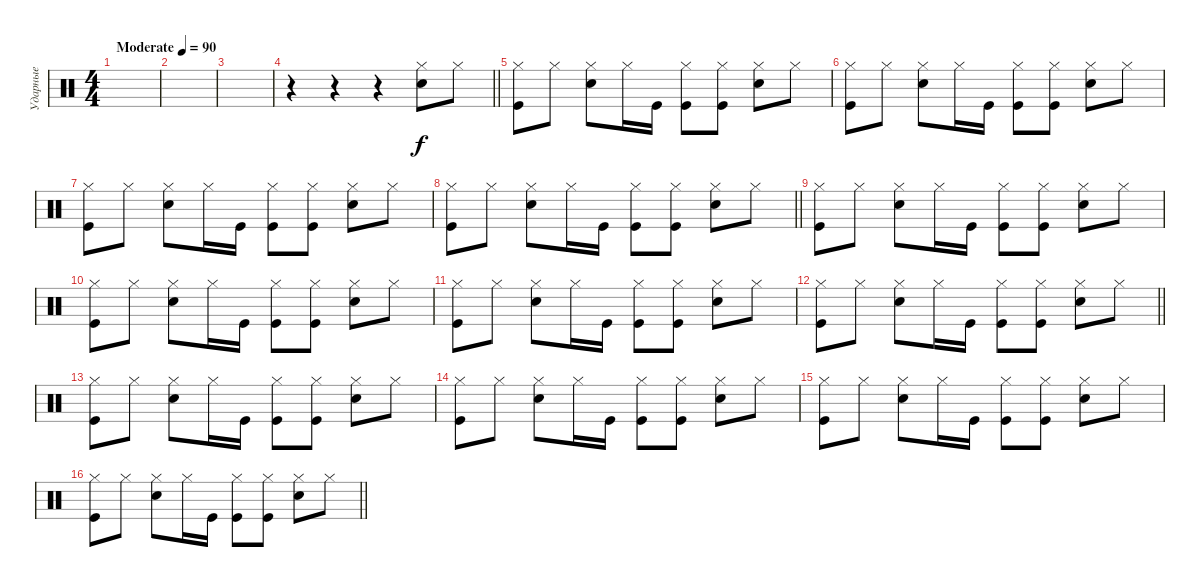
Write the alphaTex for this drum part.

\track ("Ударные" "Ударные") {instrument percussion}
\staff {score}
\articulation defaults
\ts (4 4)
\tempo (90 "Moderate")
\clef neutral
\ks c
|
|
|
\barLineRight lightlight
r.4 r.4 r.4 ("Hi-Hat (closed)" "Snare (hit) 2").8 "Hi-Hat (closed)".8 |
("Kick (hit)" "Hi-Hat (closed)").8 "Hi-Hat (closed)".8 ("Snare (hit) 2" "Hi-Hat (closed)").8 "Hi-Hat (closed)".16 "Kick (hit)".16 ("Hi-Hat (closed)" "Kick (hit)").8 ("Hi-Hat (closed)" "Kick (hit)").8 ("Hi-Hat (closed)" "Snare (hit) 2").8 "Hi-Hat (closed)".8 |
("Kick (hit)" "Hi-Hat (closed)").8 "Hi-Hat (closed)".8 ("Snare (hit) 2" "Hi-Hat (closed)").8 "Hi-Hat (closed)".16 "Kick (hit)".16 ("Hi-Hat (closed)" "Kick (hit)").8 ("Hi-Hat (closed)" "Kick (hit)").8 ("Hi-Hat (closed)" "Snare (hit) 2").8 "Hi-Hat (closed)".8 |
("Kick (hit)" "Hi-Hat (closed)").8 "Hi-Hat (closed)".8 ("Snare (hit) 2" "Hi-Hat (closed)").8 "Hi-Hat (closed)".16 "Kick (hit)".16 ("Hi-Hat (closed)" "Kick (hit)").8 ("Hi-Hat (closed)" "Kick (hit)").8 ("Hi-Hat (closed)" "Snare (hit) 2").8 "Hi-Hat (closed)".8 |
\barLineRight lightlight
("Kick (hit)" "Hi-Hat (closed)").8 "Hi-Hat (closed)".8 ("Snare (hit) 2" "Hi-Hat (closed)").8 "Hi-Hat (closed)".16 "Kick (hit)".16 ("Hi-Hat (closed)" "Kick (hit)").8 ("Hi-Hat (closed)" "Kick (hit)").8 ("Hi-Hat (closed)" "Snare (hit) 2").8 "Hi-Hat (closed)".8 |
("Kick (hit)" "Hi-Hat (closed)").8 "Hi-Hat (closed)".8 ("Snare (hit) 2" "Hi-Hat (closed)").8 "Hi-Hat (closed)".16 "Kick (hit)".16 ("Hi-Hat (closed)" "Kick (hit)").8 ("Hi-Hat (closed)" "Kick (hit)").8 ("Hi-Hat (closed)" "Snare (hit) 2").8 "Hi-Hat (closed)".8 |
("Kick (hit)" "Hi-Hat (closed)").8 "Hi-Hat (closed)".8 ("Snare (hit) 2" "Hi-Hat (closed)").8 "Hi-Hat (closed)".16 "Kick (hit)".16 ("Hi-Hat (closed)" "Kick (hit)").8 ("Hi-Hat (closed)" "Kick (hit)").8 ("Hi-Hat (closed)" "Snare (hit) 2").8 "Hi-Hat (closed)".8 |
("Kick (hit)" "Hi-Hat (closed)").8 "Hi-Hat (closed)".8 ("Snare (hit) 2" "Hi-Hat (closed)").8 "Hi-Hat (closed)".16 "Kick (hit)".16 ("Hi-Hat (closed)" "Kick (hit)").8 ("Hi-Hat (closed)" "Kick (hit)").8 ("Hi-Hat (closed)" "Snare (hit) 2").8 "Hi-Hat (closed)".8 |
\barLineRight lightlight
("Kick (hit)" "Hi-Hat (closed)").8 "Hi-Hat (closed)".8 ("Snare (hit) 2" "Hi-Hat (closed)").8 "Hi-Hat (closed)".16 "Kick (hit)".16 ("Hi-Hat (closed)" "Kick (hit)").8 ("Hi-Hat (closed)" "Kick (hit)").8 ("Hi-Hat (closed)" "Snare (hit) 2").8 "Hi-Hat (closed)".8 |
("Kick (hit)" "Hi-Hat (closed)").8 "Hi-Hat (closed)".8 ("Snare (hit) 2" "Hi-Hat (closed)").8 "Hi-Hat (closed)".16 "Kick (hit)".16 ("Hi-Hat (closed)" "Kick (hit)").8 ("Hi-Hat (closed)" "Kick (hit)").8 ("Hi-Hat (closed)" "Snare (hit) 2").8 "Hi-Hat (closed)".8 |
("Kick (hit)" "Hi-Hat (closed)").8 "Hi-Hat (closed)".8 ("Snare (hit) 2" "Hi-Hat (closed)").8 "Hi-Hat (closed)".16 "Kick (hit)".16 ("Hi-Hat (closed)" "Kick (hit)").8 ("Hi-Hat (closed)" "Kick (hit)").8 ("Hi-Hat (closed)" "Snare (hit) 2").8 "Hi-Hat (closed)".8 |
("Kick (hit)" "Hi-Hat (closed)").8 "Hi-Hat (closed)".8 ("Snare (hit) 2" "Hi-Hat (closed)").8 "Hi-Hat (closed)".16 "Kick (hit)".16 ("Hi-Hat (closed)" "Kick (hit)").8 ("Hi-Hat (closed)" "Kick (hit)").8 ("Hi-Hat (closed)" "Snare (hit) 2").8 "Hi-Hat (closed)".8 |
\barLineRight lightlight
("Kick (hit)" "Hi-Hat (closed)").8 "Hi-Hat (closed)".8 ("Snare (hit) 2" "Hi-Hat (closed)").8 "Hi-Hat (closed)".16 "Kick (hit)".16 ("Hi-Hat (closed)" "Kick (hit)").8 ("Hi-Hat (closed)" "Kick (hit)").8 ("Hi-Hat (closed)" "Snare (hit) 2").8 "Hi-Hat (closed)".8
